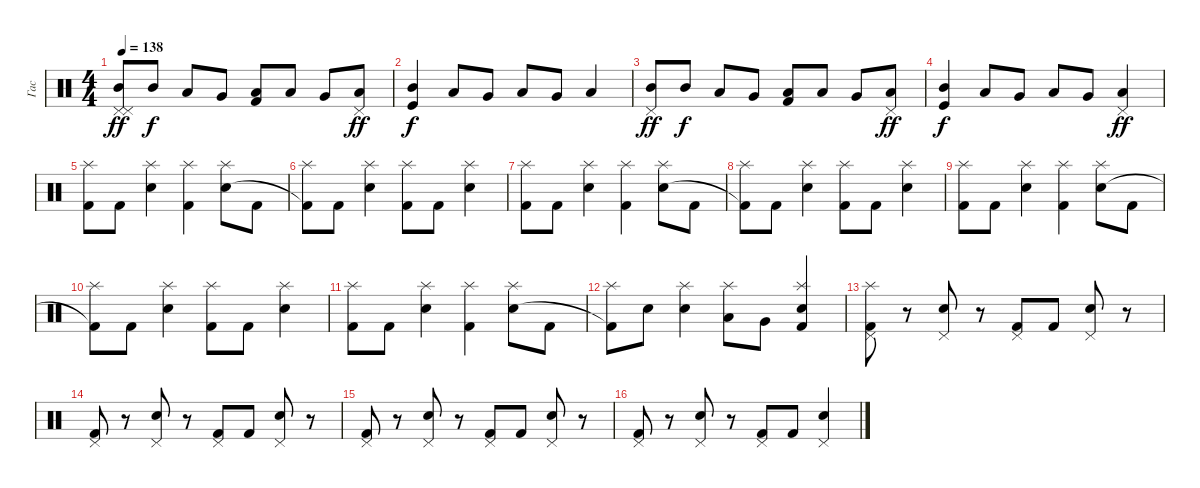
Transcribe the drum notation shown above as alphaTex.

\track ("Гас" "Гас") {instrument percussion}
\staff {score}
\articulation defaults
\ts (4 4)
\tempo 138
\clef neutral
\ks c
("Pedal Hi-Hat (hit)" "Pedal Hi-Hat (hit)" "Mid Tom (hit)").8{dy ff} "Mid Tom (hit)".8{dy f} "Low Tom (hit)".8 "Very Low Tom (hit)".8 ("Low Floor Tom (hit)" "Kick (hit) 2").8 "Low Floor Tom (hit)".8 "Very Low Tom (hit)".8 ("Pedal Hi-Hat (hit)" "Low Tom (hit)").8{dy ff} |
("Mid Tom (hit)" "Kick (hit)").4{dy f} "Low Tom (hit)".8 "Very Low Tom (hit)".8 "Low Floor Tom (hit)".8 "Very Low Tom (hit)".8 "Low Floor Tom (hit)".4 |
("Pedal Hi-Hat (hit)" "Mid Tom (hit)").8{dy ff} "Mid Tom (hit)".8{dy f} "Low Tom (hit)".8 "Very Low Tom (hit)".8 ("Low Floor Tom (hit)" "Kick (hit) 2").8 "Low Floor Tom (hit)".8 "Very Low Tom (hit)".8 ("Pedal Hi-Hat (hit)" "Low Tom (hit)").8{dy ff} |
("Mid Tom (hit)" "Kick (hit)").4{dy f} "Low Tom (hit)".8 "Very Low Tom (hit)".8 "Low Floor Tom (hit)".8 "Very Low Tom (hit)".8 ("Pedal Hi-Hat (hit)" "Low Floor Tom (hit)").4{dy ff} |
("Splash (hit)" "Kick (hit) 2").8 "Kick (hit) 2".8 ("Splash (hit)" "Electric Snare (hit)").4 ("Splash (hit)" "Kick (hit) 2").4 ("Splash (hit)" "Electric Snare (hit)").8 "Kick (hit) 2".8 |
("Splash (hit)" "Kick (hit) 2"{t}).8 "Kick (hit) 2".8 ("Splash (hit)" "Electric Snare (hit)").4 ("Splash (hit)" "Kick (hit) 2").8 "Kick (hit) 2".8 ("Splash (hit)" "Electric Snare (hit)").4 |
("Splash (hit)" "Kick (hit) 2").8 "Kick (hit) 2".8 ("Splash (hit)" "Electric Snare (hit)").4 ("Splash (hit)" "Kick (hit) 2").4 ("Splash (hit)" "Electric Snare (hit)").8 "Kick (hit) 2".8 |
("Splash (hit)" "Kick (hit) 2"{t}).8 "Kick (hit) 2".8 ("Splash (hit)" "Electric Snare (hit)").4 ("Splash (hit)" "Kick (hit) 2").8 "Kick (hit) 2".8 ("Splash (hit)" "Electric Snare (hit)").4 |
("Splash (hit)" "Kick (hit) 2").8 "Kick (hit) 2".8 ("Splash (hit)" "Electric Snare (hit)").4 ("Splash (hit)" "Kick (hit) 2").4 ("Splash (hit)" "Electric Snare (hit)").8 "Kick (hit) 2".8 |
("Splash (hit)" "Kick (hit) 2"{t}).8 "Kick (hit) 2".8 ("Splash (hit)" "Electric Snare (hit)").4 ("Splash (hit)" "Kick (hit) 2").8 "Kick (hit) 2".8 ("Splash (hit)" "Electric Snare (hit)").4 |
("Splash (hit)" "Kick (hit) 2").8 "Kick (hit) 2".8 ("Splash (hit)" "Electric Snare (hit)").4 ("Splash (hit)" "Kick (hit) 2").4 ("Splash (hit)" "Electric Snare (hit)").8 "Kick (hit) 2".8 |
("Splash (hit)" "Kick (hit) 2"{t}).8 "Electric Snare (hit)".8 ("Splash (hit)" "Electric Snare (hit)").4 ("Splash (hit)" "Low Tom (hit)").8 "Very Low Tom (hit)".8 ("Splash (hit)" "Electric Snare (hit)" "Kick (hit) 2").4 |
("Pedal Hi-Hat (hit)" "Splash (hit)" "Kick (hit) 2").8 r.8 ("Pedal Hi-Hat (hit)" "Electric Snare (hit)").8 r.8 ("Pedal Hi-Hat (hit)" "Kick (hit) 2").8 "Kick (hit) 2".8 ("Pedal Hi-Hat (hit)" "Electric Snare (hit)").8 r.8 |
("Pedal Hi-Hat (hit)" "Kick (hit) 2").8 r.8 ("Pedal Hi-Hat (hit)" "Electric Snare (hit)").8 r.8 ("Pedal Hi-Hat (hit)" "Kick (hit) 2").8 "Kick (hit) 2".8 ("Pedal Hi-Hat (hit)" "Electric Snare (hit)").8 r.8 |
("Pedal Hi-Hat (hit)" "Kick (hit) 2").8 r.8 ("Pedal Hi-Hat (hit)" "Electric Snare (hit)").8 r.8 ("Pedal Hi-Hat (hit)" "Kick (hit) 2").8 "Kick (hit) 2".8 ("Pedal Hi-Hat (hit)" "Electric Snare (hit)").8 r.8 |
("Pedal Hi-Hat (hit)" "Kick (hit) 2").8 r.8 ("Pedal Hi-Hat (hit)" "Electric Snare (hit)").8 r.8 ("Pedal Hi-Hat (hit)" "Kick (hit) 2").8 "Kick (hit) 2".8 ("Pedal Hi-Hat (hit)" "Electric Snare (hit)").4
